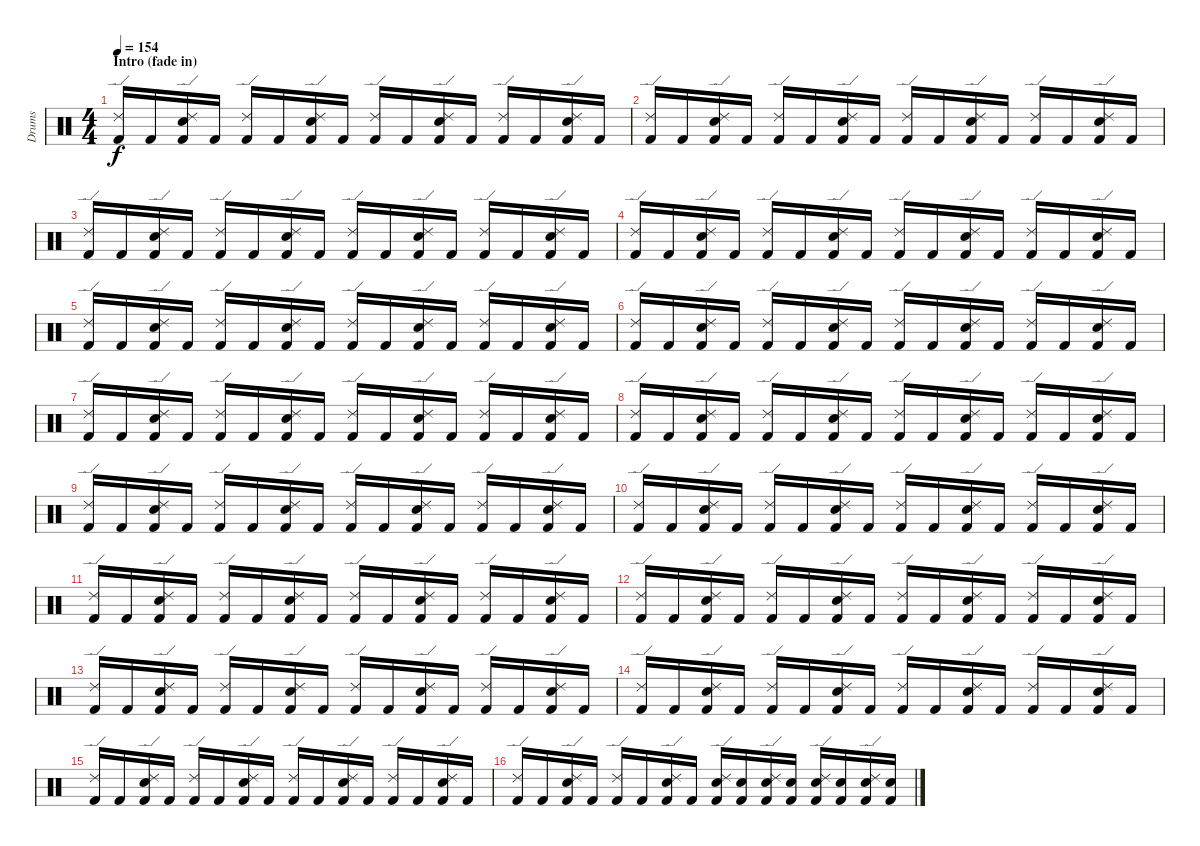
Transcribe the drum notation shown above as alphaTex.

\track ("Drums" "Drums") {instrument percussion}
\staff {score}
\articulation defaults
\ts (4 4)
\section ("" "Intro (fade in)")
\tempo 154
\clef neutral
\ks c
("Ride (edge) 2" "Kick (hit) 2").16{dy f} "Kick (hit) 2".16 ("Ride (edge) 2" "Snare (hit) 2" "Kick (hit) 2").16 "Kick (hit) 2".16 ("Ride (edge) 2" "Kick (hit) 2").16 "Kick (hit) 2".16 ("Ride (edge) 2" "Snare (hit) 2" "Kick (hit) 2").16 "Kick (hit) 2".16 ("Ride (edge) 2" "Kick (hit) 2").16 "Kick (hit) 2".16 ("Ride (edge) 2" "Snare (hit) 2" "Kick (hit) 2").16 "Kick (hit) 2".16 ("Ride (edge) 2" "Kick (hit) 2").16 "Kick (hit) 2".16 ("Ride (edge) 2" "Snare (hit) 2" "Kick (hit) 2").16 "Kick (hit) 2".16 |
("Ride (edge) 2" "Kick (hit) 2").16 "Kick (hit) 2".16 ("Ride (edge) 2" "Snare (hit) 2" "Kick (hit) 2").16 "Kick (hit) 2".16 ("Ride (edge) 2" "Kick (hit) 2").16 "Kick (hit) 2".16 ("Ride (edge) 2" "Snare (hit) 2" "Kick (hit) 2").16 "Kick (hit) 2".16 ("Ride (edge) 2" "Kick (hit) 2").16 "Kick (hit) 2".16 ("Ride (edge) 2" "Snare (hit) 2" "Kick (hit) 2").16 "Kick (hit) 2".16 ("Ride (edge) 2" "Kick (hit) 2").16 "Kick (hit) 2".16 ("Ride (edge) 2" "Snare (hit) 2" "Kick (hit) 2").16 "Kick (hit) 2".16 |
("Ride (edge) 2" "Kick (hit) 2").16 "Kick (hit) 2".16 ("Ride (edge) 2" "Snare (hit) 2" "Kick (hit) 2").16 "Kick (hit) 2".16 ("Ride (edge) 2" "Kick (hit) 2").16 "Kick (hit) 2".16 ("Ride (edge) 2" "Snare (hit) 2" "Kick (hit) 2").16 "Kick (hit) 2".16 ("Ride (edge) 2" "Kick (hit) 2").16 "Kick (hit) 2".16 ("Ride (edge) 2" "Snare (hit) 2" "Kick (hit) 2").16 "Kick (hit) 2".16 ("Ride (edge) 2" "Kick (hit) 2").16 "Kick (hit) 2".16 ("Ride (edge) 2" "Snare (hit) 2" "Kick (hit) 2").16 "Kick (hit) 2".16 |
("Ride (edge) 2" "Kick (hit) 2").16 "Kick (hit) 2".16 ("Ride (edge) 2" "Snare (hit) 2" "Kick (hit) 2").16 "Kick (hit) 2".16 ("Ride (edge) 2" "Kick (hit) 2").16 "Kick (hit) 2".16 ("Ride (edge) 2" "Snare (hit) 2" "Kick (hit) 2").16 "Kick (hit) 2".16 ("Ride (edge) 2" "Kick (hit) 2").16 "Kick (hit) 2".16 ("Ride (edge) 2" "Snare (hit) 2" "Kick (hit) 2").16 "Kick (hit) 2".16 ("Ride (edge) 2" "Kick (hit) 2").16 "Kick (hit) 2".16 ("Ride (edge) 2" "Snare (hit) 2" "Kick (hit) 2").16 "Kick (hit) 2".16 |
("Ride (edge) 2" "Kick (hit) 2").16 "Kick (hit) 2".16 ("Ride (edge) 2" "Snare (hit) 2" "Kick (hit) 2").16 "Kick (hit) 2".16 ("Ride (edge) 2" "Kick (hit) 2").16 "Kick (hit) 2".16 ("Ride (edge) 2" "Snare (hit) 2" "Kick (hit) 2").16 "Kick (hit) 2".16 ("Ride (edge) 2" "Kick (hit) 2").16 "Kick (hit) 2".16 ("Ride (edge) 2" "Snare (hit) 2" "Kick (hit) 2").16 "Kick (hit) 2".16 ("Ride (edge) 2" "Kick (hit) 2").16 "Kick (hit) 2".16 ("Ride (edge) 2" "Snare (hit) 2" "Kick (hit) 2").16 "Kick (hit) 2".16 |
("Ride (edge) 2" "Kick (hit) 2").16 "Kick (hit) 2".16 ("Ride (edge) 2" "Snare (hit) 2" "Kick (hit) 2").16 "Kick (hit) 2".16 ("Ride (edge) 2" "Kick (hit) 2").16 "Kick (hit) 2".16 ("Ride (edge) 2" "Snare (hit) 2" "Kick (hit) 2").16 "Kick (hit) 2".16 ("Ride (edge) 2" "Kick (hit) 2").16 "Kick (hit) 2".16 ("Ride (edge) 2" "Snare (hit) 2" "Kick (hit) 2").16 "Kick (hit) 2".16 ("Ride (edge) 2" "Kick (hit) 2").16 "Kick (hit) 2".16 ("Ride (edge) 2" "Snare (hit) 2" "Kick (hit) 2").16 "Kick (hit) 2".16 |
("Ride (edge) 2" "Kick (hit) 2").16 "Kick (hit) 2".16 ("Ride (edge) 2" "Snare (hit) 2" "Kick (hit) 2").16 "Kick (hit) 2".16 ("Ride (edge) 2" "Kick (hit) 2").16 "Kick (hit) 2".16 ("Ride (edge) 2" "Snare (hit) 2" "Kick (hit) 2").16 "Kick (hit) 2".16 ("Ride (edge) 2" "Kick (hit) 2").16 "Kick (hit) 2".16 ("Ride (edge) 2" "Snare (hit) 2" "Kick (hit) 2").16 "Kick (hit) 2".16 ("Ride (edge) 2" "Kick (hit) 2").16 "Kick (hit) 2".16 ("Ride (edge) 2" "Snare (hit) 2" "Kick (hit) 2").16 "Kick (hit) 2".16 |
("Ride (edge) 2" "Kick (hit) 2").16 "Kick (hit) 2".16 ("Ride (edge) 2" "Snare (hit) 2" "Kick (hit) 2").16 "Kick (hit) 2".16 ("Ride (edge) 2" "Kick (hit) 2").16 "Kick (hit) 2".16 ("Ride (edge) 2" "Snare (hit) 2" "Kick (hit) 2").16 "Kick (hit) 2".16 ("Ride (edge) 2" "Kick (hit) 2").16 "Kick (hit) 2".16 ("Ride (edge) 2" "Snare (hit) 2" "Kick (hit) 2").16 "Kick (hit) 2".16 ("Ride (edge) 2" "Kick (hit) 2").16 "Kick (hit) 2".16 ("Ride (edge) 2" "Snare (hit) 2" "Kick (hit) 2").16 "Kick (hit) 2".16 |
("Ride (edge) 2" "Kick (hit) 2").16 "Kick (hit) 2".16 ("Ride (edge) 2" "Snare (hit) 2" "Kick (hit) 2").16 "Kick (hit) 2".16 ("Ride (edge) 2" "Kick (hit) 2").16 "Kick (hit) 2".16 ("Ride (edge) 2" "Snare (hit) 2" "Kick (hit) 2").16 "Kick (hit) 2".16 ("Ride (edge) 2" "Kick (hit) 2").16 "Kick (hit) 2".16 ("Ride (edge) 2" "Snare (hit) 2" "Kick (hit) 2").16 "Kick (hit) 2".16 ("Ride (edge) 2" "Kick (hit) 2").16 "Kick (hit) 2".16 ("Ride (edge) 2" "Snare (hit) 2" "Kick (hit) 2").16 "Kick (hit) 2".16 |
("Ride (edge) 2" "Kick (hit) 2").16 "Kick (hit) 2".16 ("Ride (edge) 2" "Snare (hit) 2" "Kick (hit) 2").16 "Kick (hit) 2".16 ("Ride (edge) 2" "Kick (hit) 2").16 "Kick (hit) 2".16 ("Ride (edge) 2" "Snare (hit) 2" "Kick (hit) 2").16 "Kick (hit) 2".16 ("Ride (edge) 2" "Kick (hit) 2").16 "Kick (hit) 2".16 ("Ride (edge) 2" "Snare (hit) 2" "Kick (hit) 2").16 "Kick (hit) 2".16 ("Ride (edge) 2" "Kick (hit) 2").16 "Kick (hit) 2".16 ("Ride (edge) 2" "Snare (hit) 2" "Kick (hit) 2").16 "Kick (hit) 2".16 |
("Ride (edge) 2" "Kick (hit) 2").16 "Kick (hit) 2".16 ("Ride (edge) 2" "Snare (hit) 2" "Kick (hit) 2").16 "Kick (hit) 2".16 ("Ride (edge) 2" "Kick (hit) 2").16 "Kick (hit) 2".16 ("Ride (edge) 2" "Snare (hit) 2" "Kick (hit) 2").16 "Kick (hit) 2".16 ("Ride (edge) 2" "Kick (hit) 2").16 "Kick (hit) 2".16 ("Ride (edge) 2" "Snare (hit) 2" "Kick (hit) 2").16 "Kick (hit) 2".16 ("Ride (edge) 2" "Kick (hit) 2").16 "Kick (hit) 2".16 ("Ride (edge) 2" "Snare (hit) 2" "Kick (hit) 2").16 "Kick (hit) 2".16 |
("Ride (edge) 2" "Kick (hit) 2").16 "Kick (hit) 2".16 ("Ride (edge) 2" "Snare (hit) 2" "Kick (hit) 2").16 "Kick (hit) 2".16 ("Ride (edge) 2" "Kick (hit) 2").16 "Kick (hit) 2".16 ("Ride (edge) 2" "Snare (hit) 2" "Kick (hit) 2").16 "Kick (hit) 2".16 ("Ride (edge) 2" "Kick (hit) 2").16 "Kick (hit) 2".16 ("Ride (edge) 2" "Snare (hit) 2" "Kick (hit) 2").16 "Kick (hit) 2".16 ("Ride (edge) 2" "Kick (hit) 2").16 "Kick (hit) 2".16 ("Ride (edge) 2" "Snare (hit) 2" "Kick (hit) 2").16 "Kick (hit) 2".16 |
("Ride (edge) 2" "Kick (hit) 2").16 "Kick (hit) 2".16 ("Ride (edge) 2" "Snare (hit) 2" "Kick (hit) 2").16 "Kick (hit) 2".16 ("Ride (edge) 2" "Kick (hit) 2").16 "Kick (hit) 2".16 ("Ride (edge) 2" "Snare (hit) 2" "Kick (hit) 2").16 "Kick (hit) 2".16 ("Ride (edge) 2" "Kick (hit) 2").16 "Kick (hit) 2".16 ("Ride (edge) 2" "Snare (hit) 2" "Kick (hit) 2").16 "Kick (hit) 2".16 ("Ride (edge) 2" "Kick (hit) 2").16 "Kick (hit) 2".16 ("Ride (edge) 2" "Snare (hit) 2" "Kick (hit) 2").16 "Kick (hit) 2".16 |
("Ride (edge) 2" "Kick (hit) 2").16 "Kick (hit) 2".16 ("Ride (edge) 2" "Snare (hit) 2" "Kick (hit) 2").16 "Kick (hit) 2".16 ("Ride (edge) 2" "Kick (hit) 2").16 "Kick (hit) 2".16 ("Ride (edge) 2" "Snare (hit) 2" "Kick (hit) 2").16 "Kick (hit) 2".16 ("Ride (edge) 2" "Kick (hit) 2").16 "Kick (hit) 2".16 ("Ride (edge) 2" "Snare (hit) 2" "Kick (hit) 2").16 "Kick (hit) 2".16 ("Ride (edge) 2" "Kick (hit) 2").16 "Kick (hit) 2".16 ("Ride (edge) 2" "Snare (hit) 2" "Kick (hit) 2").16 "Kick (hit) 2".16 |
("Ride (edge) 2" "Kick (hit) 2").16 "Kick (hit) 2".16 ("Ride (edge) 2" "Snare (hit) 2" "Kick (hit) 2").16 "Kick (hit) 2".16 ("Ride (edge) 2" "Kick (hit) 2").16 "Kick (hit) 2".16 ("Ride (edge) 2" "Snare (hit) 2" "Kick (hit) 2").16 "Kick (hit) 2".16 ("Ride (edge) 2" "Kick (hit) 2").16 "Kick (hit) 2".16 ("Ride (edge) 2" "Snare (hit) 2" "Kick (hit) 2").16 "Kick (hit) 2".16 ("Ride (edge) 2" "Kick (hit) 2").16 "Kick (hit) 2".16 ("Ride (edge) 2" "Snare (hit) 2" "Kick (hit) 2").16 "Kick (hit) 2".16 |
("Ride (edge) 2" "Kick (hit) 2").16 "Kick (hit) 2".16 ("Ride (edge) 2" "Snare (hit) 2" "Kick (hit) 2").16 "Kick (hit) 2".16 ("Ride (edge) 2" "Kick (hit) 2").16 "Kick (hit) 2".16 ("Ride (edge) 2" "Snare (hit) 2" "Kick (hit) 2").16 "Kick (hit) 2".16 ("Ride (edge) 2" "Snare (hit) 2" "Kick (hit) 2").16 ("Snare (hit) 2" "Kick (hit) 2").16 ("Ride (edge) 2" "Snare (hit) 2" "Kick (hit) 2").16 ("Snare (hit) 2" "Kick (hit) 2").16 ("Ride (edge) 2" "Snare (hit) 2" "Kick (hit) 2").16 ("Snare (hit) 2" "Kick (hit) 2").16 ("Ride (edge) 2" "Snare (hit) 2" "Kick (hit) 2").16 ("Snare (hit) 2" "Kick (hit) 2").16
